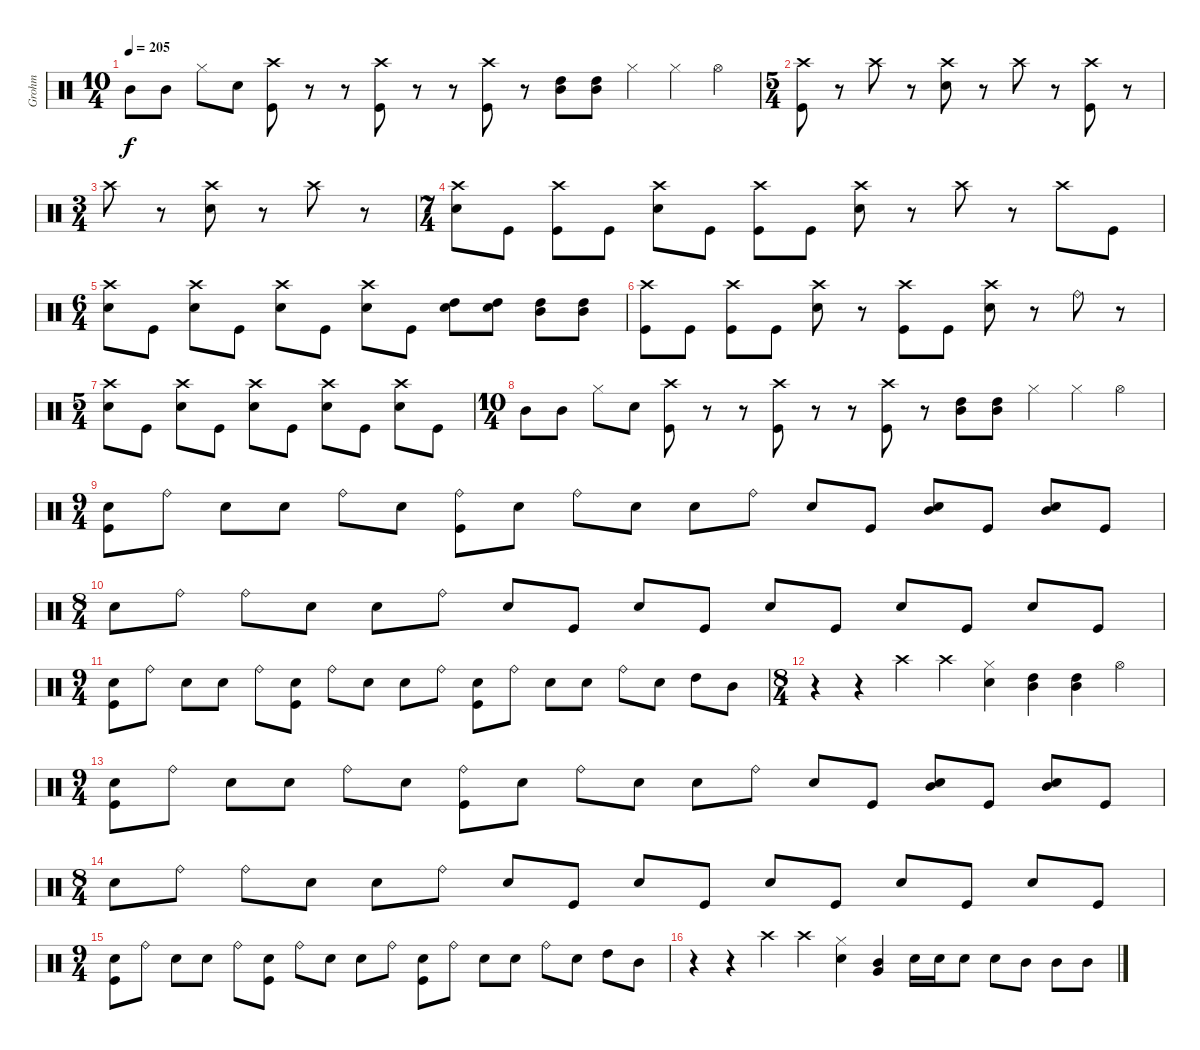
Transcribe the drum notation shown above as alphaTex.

\track ("Grohm" "Grohm") {instrument percussion}
\staff {score}
\articulation defaults
\ts (10 4)
\tempo 205
\clef neutral
\ks c "Mid Tom (hit)".8{dy f} "Mid Tom (hit)".8 "Hi-Hat (closed)".8 "Snare (hit) 2".8
("Crash high (hit)" "Kick (hit)").8 r.8 r.8 ("Crash high (hit)" "Kick (hit)").8 r.8 r.8 ("Crash high (hit)" "Kick (hit)").8 r.8 ("Mid Tom (hit)" "High Tom (hit)").8 ("Mid Tom (hit)" "High Tom (hit)").8 "Hi-Hat (closed)".4 "Hi-Hat (closed)".4 "Hi-Hat (open)".4 |
\ts (5 4)
("Crash high (hit)" "Kick (hit)").8 r.8 "Crash high (hit)".8 r.8 ("Crash high (hit)" "Snare (hit) 2").8 r.8 "Crash high (hit)".8 r.8 ("Crash high (hit)" "Kick (hit)").8 r.8 |
\ts (3 4)
"Crash high (hit)".8 r.8 ("Crash high (hit)" "Snare (hit) 2").8 r.8 "Crash high (hit)".8 r.8 |
\ts (7 4)
("Crash high (hit)" "Snare (hit) 2").8 "Kick (hit)".8 ("Crash high (hit)" "Kick (hit)").8 "Kick (hit)".8 ("Crash high (hit)" "Snare (hit) 2").8 "Kick (hit)".8 ("Crash high (hit)" "Kick (hit)").8 "Kick (hit)".8 ("Crash high (hit)" "Snare (hit) 2").8 r.8 "Crash high (hit)".8 r.8 "Crash high (hit)".8 "Kick (hit)".8 |
\ts (6 4)
("Crash high (hit)" "Snare (hit) 2").8 "Kick (hit)".8 ("Crash high (hit)" "Snare (hit) 2").8 "Kick (hit)".8 ("Crash high (hit)" "Snare (hit) 2").8 "Kick (hit)".8 ("Crash high (hit)" "Snare (hit) 2").8 "Kick (hit)".8 ("High Tom (hit)" "Snare (hit) 2").8 ("High Tom (hit)" "Snare (hit) 2").8 ("Mid Tom (hit)" "High Tom (hit)").8 ("Mid Tom (hit)" "High Tom (hit)").8 |
("Crash high (hit)" "Kick (hit)").8 "Kick (hit)".8 ("Crash high (hit)" "Kick (hit)").8 "Kick (hit)".8 ("Crash high (hit)" "Snare (hit) 2").8 r.8 ("Crash high (hit)" "Kick (hit)").8 "Kick (hit)".8 ("Crash high (hit)" "Snare (hit) 2").8 r.8 "Ride (bell)".8 r.8 |
\ts (5 4)
("Crash high (hit)" "Snare (hit) 2").8 "Kick (hit)".8 ("Crash high (hit)" "Snare (hit) 2").8 "Kick (hit)".8 ("Crash high (hit)" "Snare (hit) 2").8 "Kick (hit)".8 ("Crash high (hit)" "Snare (hit) 2").8 "Kick (hit)".8 ("Crash high (hit)" "Snare (hit) 2").8 "Kick (hit)".8 |
\ts (10 4)
"Mid Tom (hit)".8 "Mid Tom (hit)".8 "Hi-Hat (closed)".8 "Snare (hit) 2".8 ("Crash high (hit)" "Kick (hit)").8 r.8 r.8 ("Crash high (hit)" "Kick (hit)").8 r.8 r.8 ("Crash high (hit)" "Kick (hit)").8 r.8 ("Mid Tom (hit)" "High Tom (hit)").8 ("Mid Tom (hit)" "High Tom (hit)").8 "Hi-Hat (closed)".4 "Hi-Hat (closed)".4 "Hi-Hat (open)".4 |
\ts (9 4)
("Snare (hit) 2" "Kick (hit)").8 "Ride (bell)".8 "Snare (hit) 2".8 "Snare (hit) 2".8 "Ride (bell)".8 "Snare (hit) 2".8 ("Ride (bell)" "Kick (hit)").8 "Snare (hit) 2".8 "Ride (bell)".8 "Snare (hit) 2".8 "Snare (hit) 2".8 "Ride (bell)".8 "Snare (hit) 2".8 "Kick (hit)".8 ("Mid Tom (hit)" "Snare (hit) 2").8 "Kick (hit)".8 ("Mid Tom (hit)" "Snare (hit) 2").8 "Kick (hit)".8 |
\ts (8 4)
"Snare (hit) 2".8 "Ride (bell)".8 "Ride (bell)".8 "Snare (hit) 2".8 "Snare (hit) 2".8 "Ride (bell)".8 "Snare (hit) 2".8 "Kick (hit)".8 "Snare (hit) 2".8 "Kick (hit)".8 "Snare (hit) 2".8 "Kick (hit)".8 "Snare (hit) 2".8 "Kick (hit)".8 "Snare (hit) 2".8 "Kick (hit)".8 |
\ts (9 4)
("Snare (hit) 2" "Kick (hit)").8 "Ride (bell)".8 "Snare (hit) 2".8 "Snare (hit) 2".8 "Ride (bell)".8 ("Snare (hit) 2" "Kick (hit)").8 "Ride (bell)".8 "Snare (hit) 2".8 "Snare (hit) 2".8 "Ride (bell)".8 ("Snare (hit) 2" "Kick (hit)").8 "Ride (bell)".8 "Snare (hit) 2".8 "Snare (hit) 2".8 "Ride (bell)".8 "Snare (hit) 2".8 "High Tom (hit)".8 "Mid Tom (hit)".8 |
\ts (8 4)
r.4 r.4 "Crash high (hit)".4 "Crash high (hit)".4 ("Hi-Hat (closed)" "Snare (hit) 2").4 ("Mid Tom (hit)" "High Tom (hit)").4 ("Mid Tom (hit)" "High Tom (hit)").4 "Hi-Hat (open)".4 |
\ts (9 4)
("Snare (hit) 2" "Kick (hit)").8 "Ride (bell)".8 "Snare (hit) 2".8 "Snare (hit) 2".8 "Ride (bell)".8 "Snare (hit) 2".8 ("Ride (bell)" "Kick (hit)").8 "Snare (hit) 2".8 "Ride (bell)".8 "Snare (hit) 2".8 "Snare (hit) 2".8 "Ride (bell)".8 "Snare (hit) 2".8 "Kick (hit)".8 ("Mid Tom (hit)" "Snare (hit) 2").8 "Kick (hit)".8 ("Mid Tom (hit)" "Snare (hit) 2").8 "Kick (hit)".8 |
\ts (8 4)
"Snare (hit) 2".8 "Ride (bell)".8 "Ride (bell)".8 "Snare (hit) 2".8 "Snare (hit) 2".8 "Ride (bell)".8 "Snare (hit) 2".8 "Kick (hit)".8 "Snare (hit) 2".8 "Kick (hit)".8 "Snare (hit) 2".8 "Kick (hit)".8 "Snare (hit) 2".8 "Kick (hit)".8 "Snare (hit) 2".8 "Kick (hit)".8 |
\ts (9 4)
("Snare (hit) 2" "Kick (hit)").8 "Ride (bell)".8 "Snare (hit) 2".8 "Snare (hit) 2".8 "Ride (bell)".8 ("Snare (hit) 2" "Kick (hit)").8 "Ride (bell)".8 "Snare (hit) 2".8 "Snare (hit) 2".8 "Ride (bell)".8 ("Snare (hit) 2" "Kick (hit)").8 "Ride (bell)".8 "Snare (hit) 2".8 "Snare (hit) 2".8 "Ride (bell)".8 "Snare (hit) 2".8 "High Tom (hit)".8 "Mid Tom (hit)".8 |
r.4 r.4 "Crash high (hit)".4 "Crash high (hit)".4 ("Hi-Hat (closed)" "Snare (hit) 2").4 ("Mid Tom (hit)" "Very Low Tom (hit)").4 "Snare (hit) 2".16 "Snare (hit) 2".16 "Snare (hit) 2".8 "Snare (hit) 2".8 "Mid Tom (hit)".8 "Mid Tom (hit)".8 "Mid Tom (hit)".8
